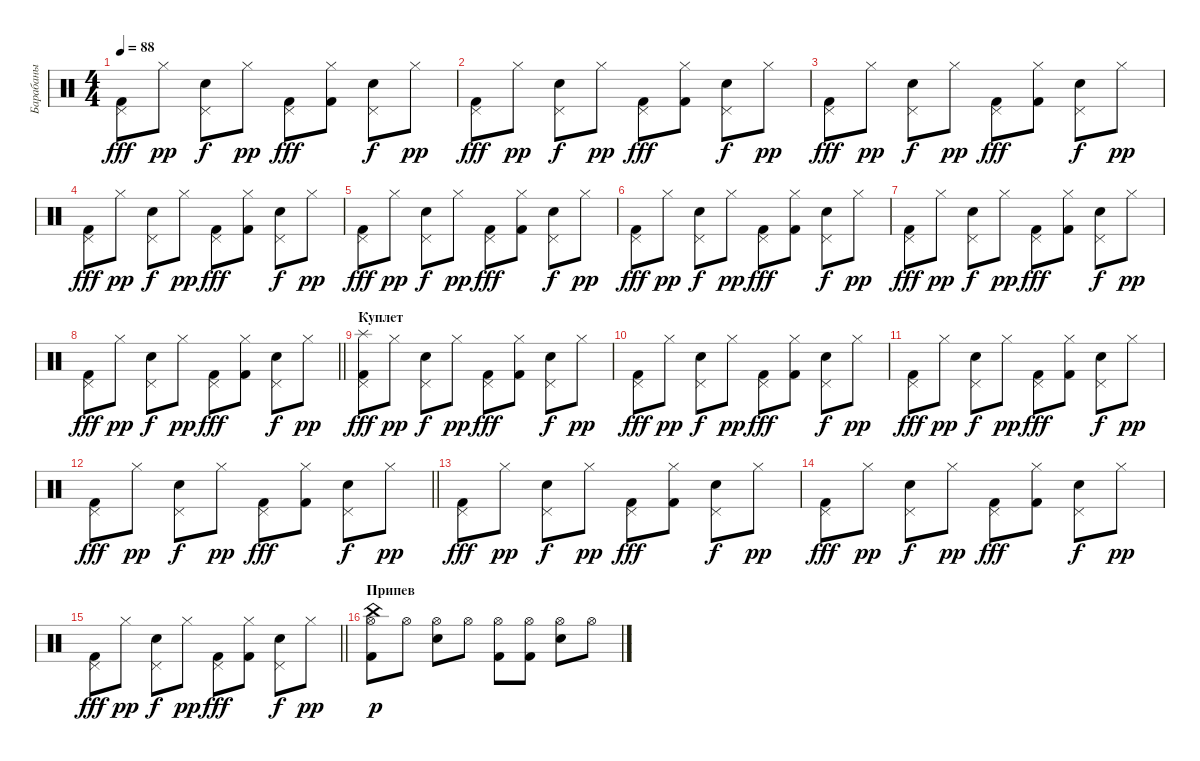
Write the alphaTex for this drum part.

\track ("Барабаны" "Барабаны") {instrument percussion}
\staff {score}
\articulation defaults
\ts (4 4)
\tempo 88
\clef neutral
\ks c
("Pedal Hi-Hat (hit)" "Kick (hit) 2").8{dy fff} "Hi-Hat (closed)".8{dy pp} ("Pedal Hi-Hat (hit)" "Electric Snare (hit)").8{dy f} "Hi-Hat (closed)".8{dy pp} ("Pedal Hi-Hat (hit)" "Kick (hit) 2").8{dy fff} ("Hi-Hat (closed)" "Kick (hit) 2").8 ("Pedal Hi-Hat (hit)" "Electric Snare (hit)").8{dy f} "Hi-Hat (closed)".8{dy pp} |
("Pedal Hi-Hat (hit)" "Kick (hit) 2").8{dy fff} "Hi-Hat (closed)".8{dy pp} ("Pedal Hi-Hat (hit)" "Electric Snare (hit)").8{dy f} "Hi-Hat (closed)".8{dy pp} ("Pedal Hi-Hat (hit)" "Kick (hit) 2").8{dy fff} ("Hi-Hat (closed)" "Kick (hit) 2").8 ("Pedal Hi-Hat (hit)" "Electric Snare (hit)").8{dy f} "Hi-Hat (closed)".8{dy pp} |
("Pedal Hi-Hat (hit)" "Kick (hit) 2").8{dy fff} "Hi-Hat (closed)".8{dy pp} ("Pedal Hi-Hat (hit)" "Electric Snare (hit)").8{dy f} "Hi-Hat (closed)".8{dy pp} ("Pedal Hi-Hat (hit)" "Kick (hit) 2").8{dy fff} ("Hi-Hat (closed)" "Kick (hit) 2").8 ("Pedal Hi-Hat (hit)" "Electric Snare (hit)").8{dy f} "Hi-Hat (closed)".8{dy pp} |
("Pedal Hi-Hat (hit)" "Kick (hit) 2").8{dy fff} "Hi-Hat (closed)".8{dy pp} ("Pedal Hi-Hat (hit)" "Electric Snare (hit)").8{dy f} "Hi-Hat (closed)".8{dy pp} ("Pedal Hi-Hat (hit)" "Kick (hit) 2").8{dy fff} ("Hi-Hat (closed)" "Kick (hit) 2").8 ("Pedal Hi-Hat (hit)" "Electric Snare (hit)").8{dy f} "Hi-Hat (closed)".8{dy pp} |
("Pedal Hi-Hat (hit)" "Kick (hit) 2").8{dy fff} "Hi-Hat (closed)".8{dy pp} ("Pedal Hi-Hat (hit)" "Electric Snare (hit)").8{dy f} "Hi-Hat (closed)".8{dy pp} ("Pedal Hi-Hat (hit)" "Kick (hit) 2").8{dy fff} ("Hi-Hat (closed)" "Kick (hit) 2").8 ("Pedal Hi-Hat (hit)" "Electric Snare (hit)").8{dy f} "Hi-Hat (closed)".8{dy pp} |
("Pedal Hi-Hat (hit)" "Kick (hit) 2").8{dy fff} "Hi-Hat (closed)".8{dy pp} ("Pedal Hi-Hat (hit)" "Electric Snare (hit)").8{dy f} "Hi-Hat (closed)".8{dy pp} ("Pedal Hi-Hat (hit)" "Kick (hit) 2").8{dy fff} ("Hi-Hat (closed)" "Kick (hit) 2").8 ("Pedal Hi-Hat (hit)" "Electric Snare (hit)").8{dy f} "Hi-Hat (closed)".8{dy pp} |
("Pedal Hi-Hat (hit)" "Kick (hit) 2").8{dy fff} "Hi-Hat (closed)".8{dy pp} ("Pedal Hi-Hat (hit)" "Electric Snare (hit)").8{dy f} "Hi-Hat (closed)".8{dy pp} ("Pedal Hi-Hat (hit)" "Kick (hit) 2").8{dy fff} ("Hi-Hat (closed)" "Kick (hit) 2").8 ("Pedal Hi-Hat (hit)" "Electric Snare (hit)").8{dy f} "Hi-Hat (closed)".8{dy pp} |
\barLineRight lightlight
("Pedal Hi-Hat (hit)" "Kick (hit) 2").8{dy fff} "Hi-Hat (closed)".8{dy pp} ("Pedal Hi-Hat (hit)" "Electric Snare (hit)").8{dy f} "Hi-Hat (closed)".8{dy pp} ("Pedal Hi-Hat (hit)" "Kick (hit) 2").8{dy fff} ("Hi-Hat (closed)" "Kick (hit) 2").8 ("Pedal Hi-Hat (hit)" "Electric Snare (hit)").8{dy f} "Hi-Hat (closed)".8{dy pp} |
\section ("" "Куплет")
("Splash (hit)" "Pedal Hi-Hat (hit)" "Kick (hit) 2").8{dy fff} "Hi-Hat (closed)".8{dy pp} ("Pedal Hi-Hat (hit)" "Electric Snare (hit)").8{dy f} "Hi-Hat (closed)".8{dy pp} ("Pedal Hi-Hat (hit)" "Kick (hit) 2").8{dy fff} ("Hi-Hat (closed)" "Kick (hit) 2").8 ("Pedal Hi-Hat (hit)" "Electric Snare (hit)").8{dy f} "Hi-Hat (closed)".8{dy pp} |
("Pedal Hi-Hat (hit)" "Kick (hit) 2").8{dy fff} "Hi-Hat (closed)".8{dy pp} ("Pedal Hi-Hat (hit)" "Electric Snare (hit)").8{dy f} "Hi-Hat (closed)".8{dy pp} ("Pedal Hi-Hat (hit)" "Kick (hit) 2").8{dy fff} ("Hi-Hat (closed)" "Kick (hit) 2").8 ("Pedal Hi-Hat (hit)" "Electric Snare (hit)").8{dy f} "Hi-Hat (closed)".8{dy pp} |
("Pedal Hi-Hat (hit)" "Kick (hit) 2").8{dy fff} "Hi-Hat (closed)".8{dy pp} ("Pedal Hi-Hat (hit)" "Electric Snare (hit)").8{dy f} "Hi-Hat (closed)".8{dy pp} ("Pedal Hi-Hat (hit)" "Kick (hit) 2").8{dy fff} ("Hi-Hat (closed)" "Kick (hit) 2").8 ("Pedal Hi-Hat (hit)" "Electric Snare (hit)").8{dy f} "Hi-Hat (closed)".8{dy pp} |
\barLineRight lightlight
("Pedal Hi-Hat (hit)" "Kick (hit) 2").8{dy fff} "Hi-Hat (closed)".8{dy pp} ("Pedal Hi-Hat (hit)" "Electric Snare (hit)").8{dy f} "Hi-Hat (closed)".8{dy pp} ("Pedal Hi-Hat (hit)" "Kick (hit) 2").8{dy fff} ("Hi-Hat (closed)" "Kick (hit) 2").8 ("Pedal Hi-Hat (hit)" "Electric Snare (hit)").8{dy f} "Hi-Hat (closed)".8{dy pp} |
("Pedal Hi-Hat (hit)" "Kick (hit) 2").8{dy fff} "Hi-Hat (closed)".8{dy pp} ("Pedal Hi-Hat (hit)" "Electric Snare (hit)").8{dy f} "Hi-Hat (closed)".8{dy pp} ("Pedal Hi-Hat (hit)" "Kick (hit) 2").8{dy fff} ("Hi-Hat (closed)" "Kick (hit) 2").8 ("Pedal Hi-Hat (hit)" "Electric Snare (hit)").8{dy f} "Hi-Hat (closed)".8{dy pp} |
("Pedal Hi-Hat (hit)" "Kick (hit) 2").8{dy fff} "Hi-Hat (closed)".8{dy pp} ("Pedal Hi-Hat (hit)" "Electric Snare (hit)").8{dy f} "Hi-Hat (closed)".8{dy pp} ("Pedal Hi-Hat (hit)" "Kick (hit) 2").8{dy fff} ("Hi-Hat (closed)" "Kick (hit) 2").8 ("Pedal Hi-Hat (hit)" "Electric Snare (hit)").8{dy f} "Hi-Hat (closed)".8{dy pp} |
\barLineRight lightlight
("Pedal Hi-Hat (hit)" "Kick (hit) 2").8{dy fff} "Hi-Hat (closed)".8{dy pp} ("Pedal Hi-Hat (hit)" "Electric Snare (hit)").8{dy f} "Hi-Hat (closed)".8{dy pp} ("Pedal Hi-Hat (hit)" "Kick (hit) 2").8{dy fff} ("Hi-Hat (closed)" "Kick (hit) 2").8 ("Pedal Hi-Hat (hit)" "Electric Snare (hit)").8{dy f} "Hi-Hat (closed)".8{dy pp} |
\section ("" "Припев")
("China (hit)" "Kick (hit) 2" "Hi-Hat (open)").8{dy p} "Hi-Hat (open)".8 ("Electric Snare (hit)" "Hi-Hat (open)").8 "Hi-Hat (open)".8 ("Kick (hit) 2" "Hi-Hat (open)").8 ("Kick (hit) 2" "Hi-Hat (open)").8 ("Electric Snare (hit)" "Hi-Hat (open)").8 "Hi-Hat (open)".8
